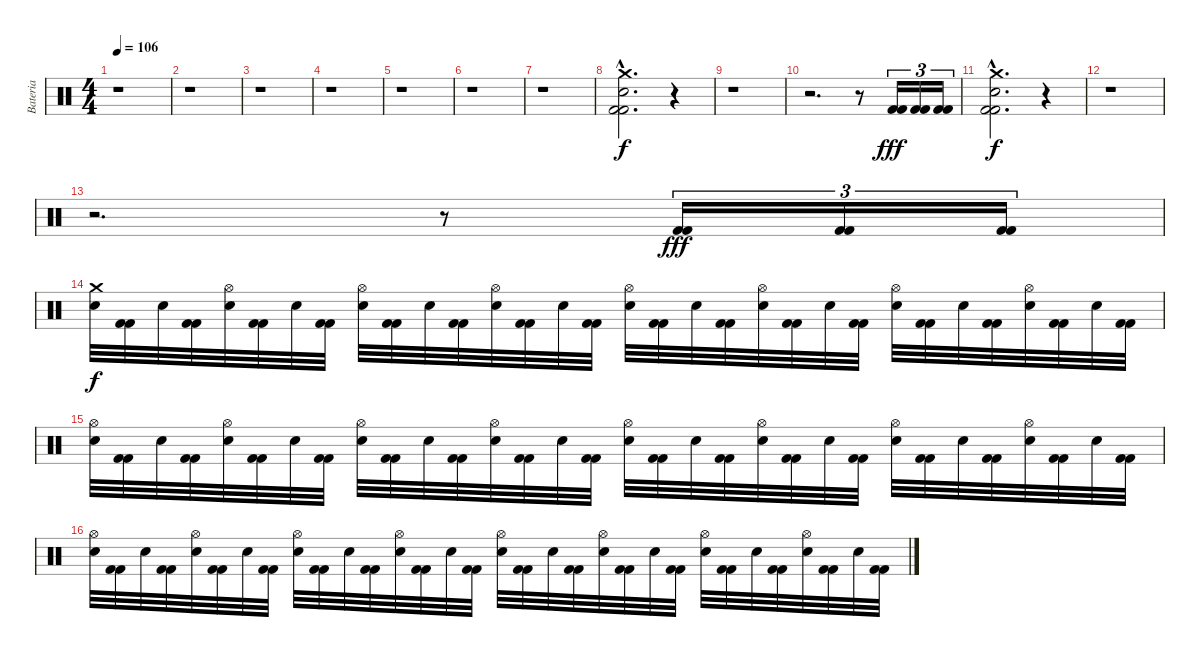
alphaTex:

\track ("Bateria" "Bateria") {instrument percussion}
\staff {score}
\articulation defaults
\ts (4 4)
\tempo 106
\tempo 117
\tempo 106
\clef neutral
\ks c
r.1{dy f} |
r.1 |
r.1 |
r.1 |
r.1 |
r.1 |
r.1 |
("Kick (hit) 2"{hac} "Kick (hit) 2"{hac} "Snare (hit) 2"{hac} "Crash medium (hit)"{hac}).2{d} r.4 |
r.1 |
r.2{d} r.8 ("Kick (hit) 2" "Kick (hit) 2").16{tu (3 2) dy fff} ("Kick (hit) 2" "Kick (hit) 2").16{tu (3 2)} ("Kick (hit) 2" "Kick (hit) 2").16{tu (3 2)} |
("Kick (hit) 2"{hac} "Kick (hit) 2"{hac} "Snare (hit) 2"{hac} "Crash medium (hit)"{hac}).2{d dy f} r.4 |
r.1 |
r.2{d} r.8 ("Kick (hit) 2" "Kick (hit) 2").16{tu (3 2) dy fff} ("Kick (hit) 2" "Kick (hit) 2").16{tu (3 2)} ("Kick (hit) 2" "Kick (hit) 2").16{tu (3 2)} |
("Crash medium (hit)" "Snare (hit) 2").32{dy f} ("Kick (hit) 2" "Kick (hit) 2").32 "Snare (hit) 2".32 ("Kick (hit) 2" "Kick (hit) 2").32 ("Hi-Hat (open)" "Snare (hit) 2").32 ("Kick (hit) 2" "Kick (hit) 2").32 "Snare (hit) 2".32 ("Kick (hit) 2" "Kick (hit) 2").32 ("Hi-Hat (open)" "Snare (hit) 2").32 ("Kick (hit) 2" "Kick (hit) 2").32 "Snare (hit) 2".32 ("Kick (hit) 2" "Kick (hit) 2").32 ("Hi-Hat (open)" "Snare (hit) 2").32 ("Kick (hit) 2" "Kick (hit) 2").32 "Snare (hit) 2".32 ("Kick (hit) 2" "Kick (hit) 2").32 ("Hi-Hat (open)" "Snare (hit) 2").32 ("Kick (hit) 2" "Kick (hit) 2").32 "Snare (hit) 2".32 ("Kick (hit) 2" "Kick (hit) 2").32 ("Hi-Hat (open)" "Snare (hit) 2").32 ("Kick (hit) 2" "Kick (hit) 2").32 "Snare (hit) 2".32 ("Kick (hit) 2" "Kick (hit) 2").32 ("Hi-Hat (open)" "Snare (hit) 2").32 ("Kick (hit) 2" "Kick (hit) 2").32 "Snare (hit) 2".32 ("Kick (hit) 2" "Kick (hit) 2").32 ("Hi-Hat (open)" "Snare (hit) 2").32 ("Kick (hit) 2" "Kick (hit) 2").32 "Snare (hit) 2".32 ("Kick (hit) 2" "Kick (hit) 2").32 |
("Hi-Hat (open)" "Snare (hit) 2").32 ("Kick (hit) 2" "Kick (hit) 2").32 "Snare (hit) 2".32 ("Kick (hit) 2" "Kick (hit) 2").32 ("Hi-Hat (open)" "Snare (hit) 2").32 ("Kick (hit) 2" "Kick (hit) 2").32 "Snare (hit) 2".32 ("Kick (hit) 2" "Kick (hit) 2").32 ("Hi-Hat (open)" "Snare (hit) 2").32 ("Kick (hit) 2" "Kick (hit) 2").32 "Snare (hit) 2".32 ("Kick (hit) 2" "Kick (hit) 2").32 ("Hi-Hat (open)" "Snare (hit) 2").32 ("Kick (hit) 2" "Kick (hit) 2").32 "Snare (hit) 2".32 ("Kick (hit) 2" "Kick (hit) 2").32 ("Hi-Hat (open)" "Snare (hit) 2").32 ("Kick (hit) 2" "Kick (hit) 2").32 "Snare (hit) 2".32 ("Kick (hit) 2" "Kick (hit) 2").32 ("Hi-Hat (open)" "Snare (hit) 2").32 ("Kick (hit) 2" "Kick (hit) 2").32 "Snare (hit) 2".32 ("Kick (hit) 2" "Kick (hit) 2").32 ("Hi-Hat (open)" "Snare (hit) 2").32 ("Kick (hit) 2" "Kick (hit) 2").32 "Snare (hit) 2".32 ("Kick (hit) 2" "Kick (hit) 2").32 ("Hi-Hat (open)" "Snare (hit) 2").32 ("Kick (hit) 2" "Kick (hit) 2").32 "Snare (hit) 2".32 ("Kick (hit) 2" "Kick (hit) 2").32 |
("Hi-Hat (open)" "Snare (hit) 2").32 ("Kick (hit) 2" "Kick (hit) 2").32 "Snare (hit) 2".32 ("Kick (hit) 2" "Kick (hit) 2").32 ("Hi-Hat (open)" "Snare (hit) 2").32 ("Kick (hit) 2" "Kick (hit) 2").32 "Snare (hit) 2".32 ("Kick (hit) 2" "Kick (hit) 2").32 ("Hi-Hat (open)" "Snare (hit) 2").32 ("Kick (hit) 2" "Kick (hit) 2").32 "Snare (hit) 2".32 ("Kick (hit) 2" "Kick (hit) 2").32 ("Hi-Hat (open)" "Snare (hit) 2").32 ("Kick (hit) 2" "Kick (hit) 2").32 "Snare (hit) 2".32 ("Kick (hit) 2" "Kick (hit) 2").32 ("Hi-Hat (open)" "Snare (hit) 2").32 ("Kick (hit) 2" "Kick (hit) 2").32 "Snare (hit) 2".32 ("Kick (hit) 2" "Kick (hit) 2").32 ("Hi-Hat (open)" "Snare (hit) 2").32 ("Kick (hit) 2" "Kick (hit) 2").32 "Snare (hit) 2".32 ("Kick (hit) 2" "Kick (hit) 2").32 ("Hi-Hat (open)" "Snare (hit) 2").32 ("Kick (hit) 2" "Kick (hit) 2").32 "Snare (hit) 2".32 ("Kick (hit) 2" "Kick (hit) 2").32 ("Hi-Hat (open)" "Snare (hit) 2").32 ("Kick (hit) 2" "Kick (hit) 2").32 "Snare (hit) 2".32 ("Kick (hit) 2" "Kick (hit) 2").32
